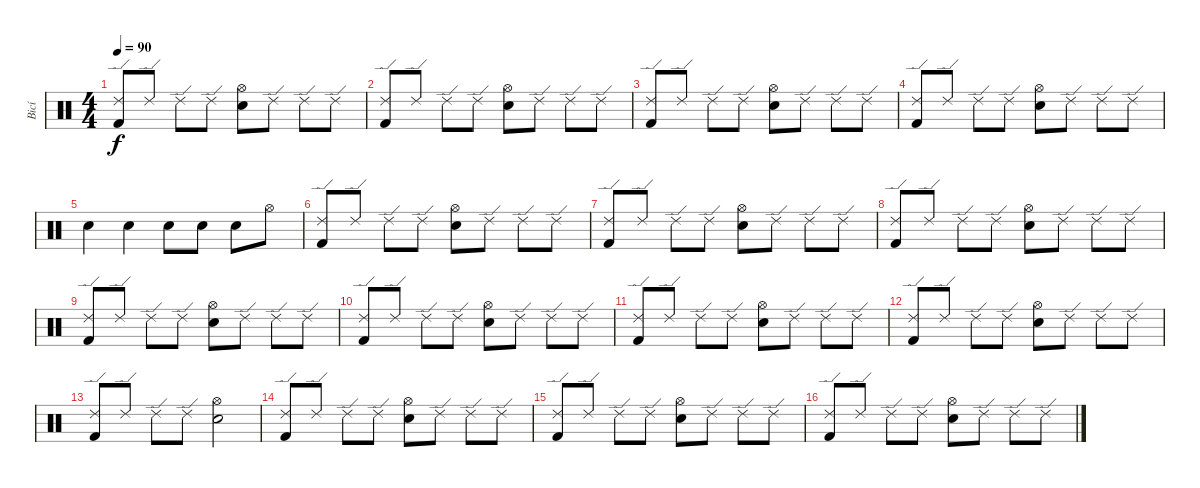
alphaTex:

\track ("Bicí" "Bicí") {instrument percussion}
\staff {score}
\articulation defaults
\ts (4 4)
\tempo 90
\clef neutral
\ks c
("Ride (edge) 2" "Kick (hit) 2").8{dy f} "Ride (edge) 2".8 "Ride (edge) 2".8 "Ride (edge) 2".8 ("Hi-Hat (open)" "Electric Snare (hit)").8 "Ride (edge) 2".8 "Ride (edge) 2".8 "Ride (edge) 2".8 |
("Ride (edge) 2" "Kick (hit) 2").8 "Ride (edge) 2".8 "Ride (edge) 2".8 "Ride (edge) 2".8 ("Hi-Hat (open)" "Electric Snare (hit)").8 "Ride (edge) 2".8 "Ride (edge) 2".8 "Ride (edge) 2".8 |
("Ride (edge) 2" "Kick (hit) 2").8 "Ride (edge) 2".8 "Ride (edge) 2".8 "Ride (edge) 2".8 ("Hi-Hat (open)" "Electric Snare (hit)").8 "Ride (edge) 2".8 "Ride (edge) 2".8 "Ride (edge) 2".8 |
("Ride (edge) 2" "Kick (hit) 2").8 "Ride (edge) 2".8 "Ride (edge) 2".8 "Ride (edge) 2".8 ("Hi-Hat (open)" "Electric Snare (hit)").8 "Ride (edge) 2".8 "Ride (edge) 2".8 "Ride (edge) 2".8 |
"Electric Snare (hit)".4 "Electric Snare (hit)".4 "Electric Snare (hit)".8 "Electric Snare (hit)".8 "Electric Snare (hit)".8 "Hi-Hat (open)".8 |
("Ride (edge) 2" "Kick (hit) 2").8 "Ride (edge) 2".8 "Ride (edge) 2".8 "Ride (edge) 2".8 ("Hi-Hat (open)" "Electric Snare (hit)").8 "Ride (edge) 2".8 "Ride (edge) 2".8 "Ride (edge) 2".8 |
("Ride (edge) 2" "Kick (hit) 2").8 "Ride (edge) 2".8 "Ride (edge) 2".8 "Ride (edge) 2".8 ("Hi-Hat (open)" "Electric Snare (hit)").8 "Ride (edge) 2".8 "Ride (edge) 2".8 "Ride (edge) 2".8 |
("Ride (edge) 2" "Kick (hit) 2").8 "Ride (edge) 2".8 "Ride (edge) 2".8 "Ride (edge) 2".8 ("Hi-Hat (open)" "Electric Snare (hit)").8 "Ride (edge) 2".8 "Ride (edge) 2".8 "Ride (edge) 2".8 |
("Ride (edge) 2" "Kick (hit) 2").8 "Ride (edge) 2".8 "Ride (edge) 2".8 "Ride (edge) 2".8 ("Hi-Hat (open)" "Electric Snare (hit)").8 "Ride (edge) 2".8 "Ride (edge) 2".8 "Ride (edge) 2".8 |
("Ride (edge) 2" "Kick (hit) 2").8 "Ride (edge) 2".8 "Ride (edge) 2".8 "Ride (edge) 2".8 ("Hi-Hat (open)" "Electric Snare (hit)").8 "Ride (edge) 2".8 "Ride (edge) 2".8 "Ride (edge) 2".8 |
("Ride (edge) 2" "Kick (hit) 2").8 "Ride (edge) 2".8 "Ride (edge) 2".8 "Ride (edge) 2".8 ("Hi-Hat (open)" "Electric Snare (hit)").8 "Ride (edge) 2".8 "Ride (edge) 2".8 "Ride (edge) 2".8 |
("Ride (edge) 2" "Kick (hit) 2").8 "Ride (edge) 2".8 "Ride (edge) 2".8 "Ride (edge) 2".8 ("Hi-Hat (open)" "Electric Snare (hit)").8 "Ride (edge) 2".8 "Ride (edge) 2".8 "Ride (edge) 2".8 |
("Ride (edge) 2" "Kick (hit) 2").8 "Ride (edge) 2".8 "Ride (edge) 2".8 "Ride (edge) 2".8 ("Hi-Hat (open)" "Electric Snare (hit)").2 |
("Ride (edge) 2" "Kick (hit) 2").8 "Ride (edge) 2".8 "Ride (edge) 2".8 "Ride (edge) 2".8 ("Hi-Hat (open)" "Electric Snare (hit)").8 "Ride (edge) 2".8 "Ride (edge) 2".8 "Ride (edge) 2".8 |
("Ride (edge) 2" "Kick (hit) 2").8 "Ride (edge) 2".8 "Ride (edge) 2".8 "Ride (edge) 2".8 ("Hi-Hat (open)" "Electric Snare (hit)").8 "Ride (edge) 2".8 "Ride (edge) 2".8 "Ride (edge) 2".8 |
("Ride (edge) 2" "Kick (hit) 2").8 "Ride (edge) 2".8 "Ride (edge) 2".8 "Ride (edge) 2".8 ("Hi-Hat (open)" "Electric Snare (hit)").8 "Ride (edge) 2".8 "Ride (edge) 2".8 "Ride (edge) 2".8
